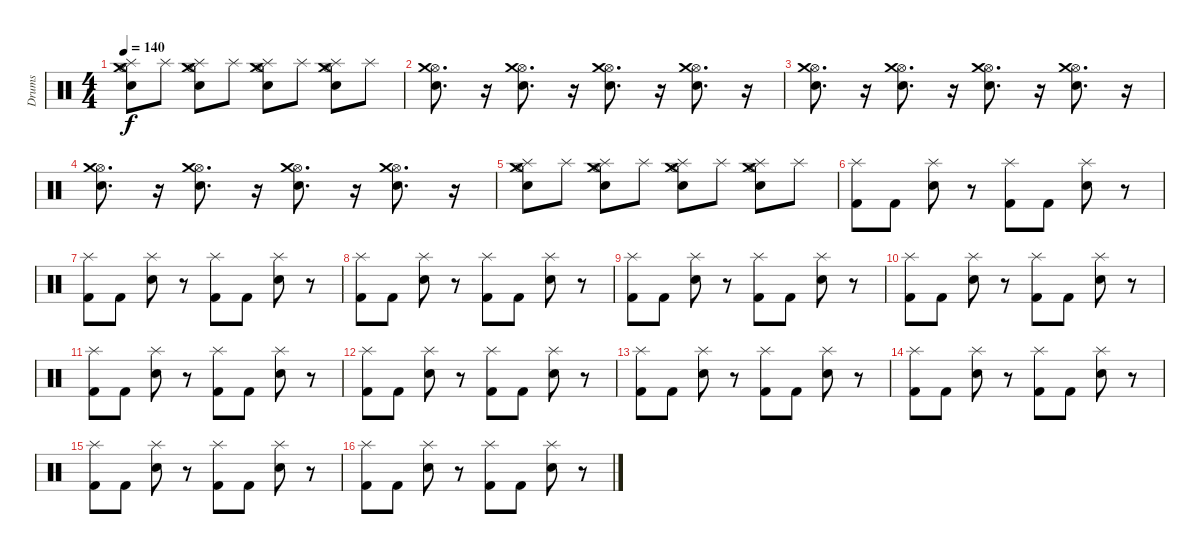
\track ("Drums" "Drums") {instrument percussion}
\staff {score}
\articulation defaults
\ts (4 4)
\tempo 140
\clef neutral
\ks c
("Snare (hit) 2" "Hi-Hat (open)" "Crash medium (hit)" "Splash (hit)").8{dy f} "Splash (hit)".8 ("Snare (hit) 2" "Hi-Hat (open)" "Crash medium (hit)" "Splash (hit)").8 "Splash (hit)".8 ("Snare (hit) 2" "Hi-Hat (open)" "Crash medium (hit)" "Splash (hit)").8 "Splash (hit)".8 ("Snare (hit) 2" "Hi-Hat (open)" "Crash medium (hit)" "Splash (hit)").8 "Splash (hit)".8 |
("Snare (hit) 2" "Hi-Hat (open)" "Crash medium (hit)").8{d} r.16 ("Snare (hit) 2" "Hi-Hat (open)" "Crash medium (hit)").8{d} r.16 ("Snare (hit) 2" "Hi-Hat (open)" "Crash medium (hit)").8{d} r.16 ("Snare (hit) 2" "Hi-Hat (open)" "Crash medium (hit)").8{d} r.16 |
("Snare (hit) 2" "Hi-Hat (open)" "Crash medium (hit)").8{d} r.16 ("Snare (hit) 2" "Hi-Hat (open)" "Crash medium (hit)").8{d} r.16 ("Snare (hit) 2" "Hi-Hat (open)" "Crash medium (hit)").8{d} r.16 ("Snare (hit) 2" "Hi-Hat (open)" "Crash medium (hit)").8{d} r.16 |
("Snare (hit) 2" "Hi-Hat (open)" "Crash medium (hit)").8{d} r.16 ("Snare (hit) 2" "Hi-Hat (open)" "Crash medium (hit)").8{d} r.16 ("Snare (hit) 2" "Hi-Hat (open)" "Crash medium (hit)").8{d} r.16 ("Snare (hit) 2" "Hi-Hat (open)" "Crash medium (hit)").8{d} r.16 |
("Snare (hit) 2" "Hi-Hat (open)" "Crash medium (hit)" "Splash (hit)").8 "Splash (hit)".8 ("Snare (hit) 2" "Hi-Hat (open)" "Crash medium (hit)" "Splash (hit)").8 "Splash (hit)".8 ("Snare (hit) 2" "Hi-Hat (open)" "Crash medium (hit)" "Splash (hit)").8 "Splash (hit)".8 ("Snare (hit) 2" "Hi-Hat (open)" "Crash medium (hit)" "Splash (hit)").8 "Splash (hit)".8 |
("Splash (hit)" "Kick (hit) 2").8 "Kick (hit) 2".8 ("Splash (hit)" "Snare (hit) 2").8 r.8 ("Splash (hit)" "Kick (hit) 2").8 "Kick (hit) 2".8 ("Splash (hit)" "Snare (hit) 2").8 r.8 |
("Splash (hit)" "Kick (hit) 2").8 "Kick (hit) 2".8 ("Splash (hit)" "Snare (hit) 2").8 r.8 ("Splash (hit)" "Kick (hit) 2").8 "Kick (hit) 2".8 ("Splash (hit)" "Snare (hit) 2").8 r.8 |
("Splash (hit)" "Kick (hit) 2").8 "Kick (hit) 2".8 ("Splash (hit)" "Snare (hit) 2").8 r.8 ("Splash (hit)" "Kick (hit) 2").8 "Kick (hit) 2".8 ("Splash (hit)" "Snare (hit) 2").8 r.8 |
("Splash (hit)" "Kick (hit) 2").8 "Kick (hit) 2".8 ("Splash (hit)" "Snare (hit) 2").8 r.8 ("Splash (hit)" "Kick (hit) 2").8 "Kick (hit) 2".8 ("Splash (hit)" "Snare (hit) 2").8 r.8 |
("Splash (hit)" "Kick (hit) 2").8 "Kick (hit) 2".8 ("Splash (hit)" "Snare (hit) 2").8 r.8 ("Splash (hit)" "Kick (hit) 2").8 "Kick (hit) 2".8 ("Splash (hit)" "Snare (hit) 2").8 r.8 |
("Splash (hit)" "Kick (hit) 2").8 "Kick (hit) 2".8 ("Splash (hit)" "Snare (hit) 2").8 r.8 ("Splash (hit)" "Kick (hit) 2").8 "Kick (hit) 2".8 ("Splash (hit)" "Snare (hit) 2").8 r.8 |
("Splash (hit)" "Kick (hit) 2").8 "Kick (hit) 2".8 ("Splash (hit)" "Snare (hit) 2").8 r.8 ("Splash (hit)" "Kick (hit) 2").8 "Kick (hit) 2".8 ("Splash (hit)" "Snare (hit) 2").8 r.8 |
("Splash (hit)" "Kick (hit) 2").8 "Kick (hit) 2".8 ("Splash (hit)" "Snare (hit) 2").8 r.8 ("Splash (hit)" "Kick (hit) 2").8 "Kick (hit) 2".8 ("Splash (hit)" "Snare (hit) 2").8 r.8 |
("Splash (hit)" "Kick (hit) 2").8 "Kick (hit) 2".8 ("Splash (hit)" "Snare (hit) 2").8 r.8 ("Splash (hit)" "Kick (hit) 2").8 "Kick (hit) 2".8 ("Splash (hit)" "Snare (hit) 2").8 r.8 |
("Splash (hit)" "Kick (hit) 2").8 "Kick (hit) 2".8 ("Splash (hit)" "Snare (hit) 2").8 r.8 ("Splash (hit)" "Kick (hit) 2").8 "Kick (hit) 2".8 ("Splash (hit)" "Snare (hit) 2").8 r.8 |
("Splash (hit)" "Kick (hit) 2").8 "Kick (hit) 2".8 ("Splash (hit)" "Snare (hit) 2").8 r.8 ("Splash (hit)" "Kick (hit) 2").8 "Kick (hit) 2".8 ("Splash (hit)" "Snare (hit) 2").8 r.8
